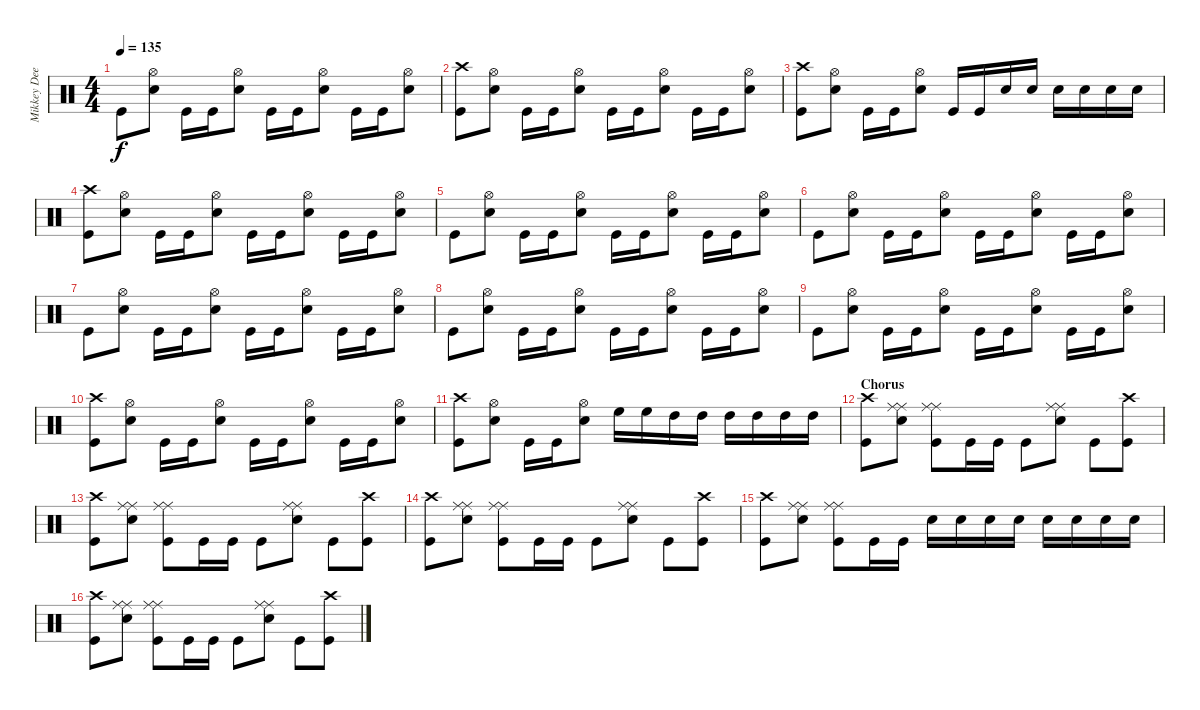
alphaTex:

\track ("Mikkey Dee - Drums" "Mikkey Dee") {instrument percussion}
\staff {score}
\articulation defaults
\ts (4 4)
\tempo 135
\clef neutral
\ks c "Kick (hit)".8{dy f}
("Snare (hit) 2" "Hi-Hat (open)").8 "Kick (hit)".16 "Kick (hit)".16 ("Snare (hit) 2" "Hi-Hat (open)").8 "Kick (hit)".16 "Kick (hit)".16 ("Snare (hit) 2" "Hi-Hat (open)").8 "Kick (hit)".16 "Kick (hit)".16 ("Snare (hit) 2" "Hi-Hat (open)").8 |
("Crash high (hit)" "Kick (hit)").8 ("Snare (hit) 2" "Hi-Hat (open)").8 "Kick (hit)".16 "Kick (hit)".16 ("Snare (hit) 2" "Hi-Hat (open)").8 "Kick (hit)".16 "Kick (hit)".16 ("Snare (hit) 2" "Hi-Hat (open)").8 "Kick (hit)".16 "Kick (hit)".16 ("Snare (hit) 2" "Hi-Hat (open)").8 |
("Crash high (hit)" "Kick (hit)").8 ("Snare (hit) 2" "Hi-Hat (open)").8 "Kick (hit)".16 "Kick (hit)".16 ("Snare (hit) 2" "Hi-Hat (open)").8 "Kick (hit)".16 "Kick (hit)".16 "Snare (hit) 2".16 "Snare (hit) 2".16 "Snare (hit) 2".16 "Snare (hit) 2".16 "Snare (hit) 2".16 "Snare (hit) 2".16 |
("Crash high (hit)" "Kick (hit)").8 ("Snare (hit) 2" "Hi-Hat (open)").8 "Kick (hit)".16 "Kick (hit)".16 ("Snare (hit) 2" "Hi-Hat (open)").8 "Kick (hit)".16 "Kick (hit)".16 ("Snare (hit) 2" "Hi-Hat (open)").8 "Kick (hit)".16 "Kick (hit)".16 ("Snare (hit) 2" "Hi-Hat (open)").8 |
"Kick (hit)".8 ("Snare (hit) 2" "Hi-Hat (open)").8 "Kick (hit)".16 "Kick (hit)".16 ("Snare (hit) 2" "Hi-Hat (open)").8 "Kick (hit)".16 "Kick (hit)".16 ("Snare (hit) 2" "Hi-Hat (open)").8 "Kick (hit)".16 "Kick (hit)".16 ("Snare (hit) 2" "Hi-Hat (open)").8 |
"Kick (hit)".8 ("Snare (hit) 2" "Hi-Hat (open)").8 "Kick (hit)".16 "Kick (hit)".16 ("Snare (hit) 2" "Hi-Hat (open)").8 "Kick (hit)".16 "Kick (hit)".16 ("Snare (hit) 2" "Hi-Hat (open)").8 "Kick (hit)".16 "Kick (hit)".16 ("Snare (hit) 2" "Hi-Hat (open)").8 |
"Kick (hit)".8 ("Snare (hit) 2" "Hi-Hat (open)").8 "Kick (hit)".16 "Kick (hit)".16 ("Snare (hit) 2" "Hi-Hat (open)").8 "Kick (hit)".16 "Kick (hit)".16 ("Snare (hit) 2" "Hi-Hat (open)").8 "Kick (hit)".16 "Kick (hit)".16 ("Snare (hit) 2" "Hi-Hat (open)").8 |
"Kick (hit)".8 ("Snare (hit) 2" "Hi-Hat (open)").8 "Kick (hit)".16 "Kick (hit)".16 ("Snare (hit) 2" "Hi-Hat (open)").8 "Kick (hit)".16 "Kick (hit)".16 ("Snare (hit) 2" "Hi-Hat (open)").8 "Kick (hit)".16 "Kick (hit)".16 ("Snare (hit) 2" "Hi-Hat (open)").8 |
"Kick (hit)".8 ("Snare (hit) 2" "Hi-Hat (open)").8 "Kick (hit)".16 "Kick (hit)".16 ("Snare (hit) 2" "Hi-Hat (open)").8 "Kick (hit)".16 "Kick (hit)".16 ("Snare (hit) 2" "Hi-Hat (open)").8 "Kick (hit)".16 "Kick (hit)".16 ("Snare (hit) 2" "Hi-Hat (open)").8 |
("Crash high (hit)" "Kick (hit)").8 ("Snare (hit) 2" "Hi-Hat (open)").8 "Kick (hit)".16 "Kick (hit)".16 ("Snare (hit) 2" "Hi-Hat (open)").8 "Kick (hit)".16 "Kick (hit)".16 ("Snare (hit) 2" "Hi-Hat (open)").8 "Kick (hit)".16 "Kick (hit)".16 ("Snare (hit) 2" "Hi-Hat (open)").8 |
("Crash high (hit)" "Kick (hit)").8 ("Snare (hit) 2" "Hi-Hat (open)").8 "Kick (hit)".16 "Kick (hit)".16 ("Snare (hit) 2" "Hi-Hat (open)").8 "High Floor Tom (hit)".16 "High Floor Tom (hit)".16 "High Tom (hit)".16 "High Tom (hit)".16 "High Tom (hit)".16 "High Tom (hit)".16 "High Tom (hit)".16 "High Tom (hit)".16 |
\section ("" "Chorus")
("Crash high (hit)" "Kick (hit)").8 ("Ride (middle)" "Ride (middle)" "Snare (hit) 2").8 ("Ride (middle)" "Ride (middle)" "Kick (hit)").8 "Kick (hit)".16 "Kick (hit)".16 "Kick (hit)".8 ("Ride (middle)" "Ride (middle)" "Snare (hit) 2").8 "Kick (hit)".8 ("Crash high (hit)" "Kick (hit)").8 |
("Crash high (hit)" "Kick (hit)").8 ("Ride (middle)" "Ride (middle)" "Snare (hit) 2").8 ("Ride (middle)" "Ride (middle)" "Kick (hit)").8 "Kick (hit)".16 "Kick (hit)".16 "Kick (hit)".8 ("Ride (middle)" "Ride (middle)" "Snare (hit) 2").8 "Kick (hit)".8 ("Crash high (hit)" "Kick (hit)").8 |
("Crash high (hit)" "Kick (hit)").8 ("Ride (middle)" "Ride (middle)" "Snare (hit) 2").8 ("Ride (middle)" "Ride (middle)" "Kick (hit)").8 "Kick (hit)".16 "Kick (hit)".16 "Kick (hit)".8 ("Ride (middle)" "Ride (middle)" "Snare (hit) 2").8 "Kick (hit)".8 ("Crash high (hit)" "Kick (hit)").8 |
("Crash high (hit)" "Kick (hit)").8 ("Ride (middle)" "Ride (middle)" "Snare (hit) 2").8 ("Ride (middle)" "Ride (middle)" "Kick (hit)").8 "Kick (hit)".16 "Kick (hit)".16 "Snare (hit) 2".16 "Snare (hit) 2".16 "Snare (hit) 2".16 "Snare (hit) 2".16 "Snare (hit) 2".16 "Snare (hit) 2".16 "Snare (hit) 2".16 "Snare (hit) 2".16 |
("Crash high (hit)" "Kick (hit)").8 ("Ride (middle)" "Ride (middle)" "Snare (hit) 2").8 ("Ride (middle)" "Ride (middle)" "Kick (hit)").8 "Kick (hit)".16 "Kick (hit)".16 "Kick (hit)".8 ("Ride (middle)" "Ride (middle)" "Snare (hit) 2").8 "Kick (hit)".8 ("Crash high (hit)" "Kick (hit)").8
